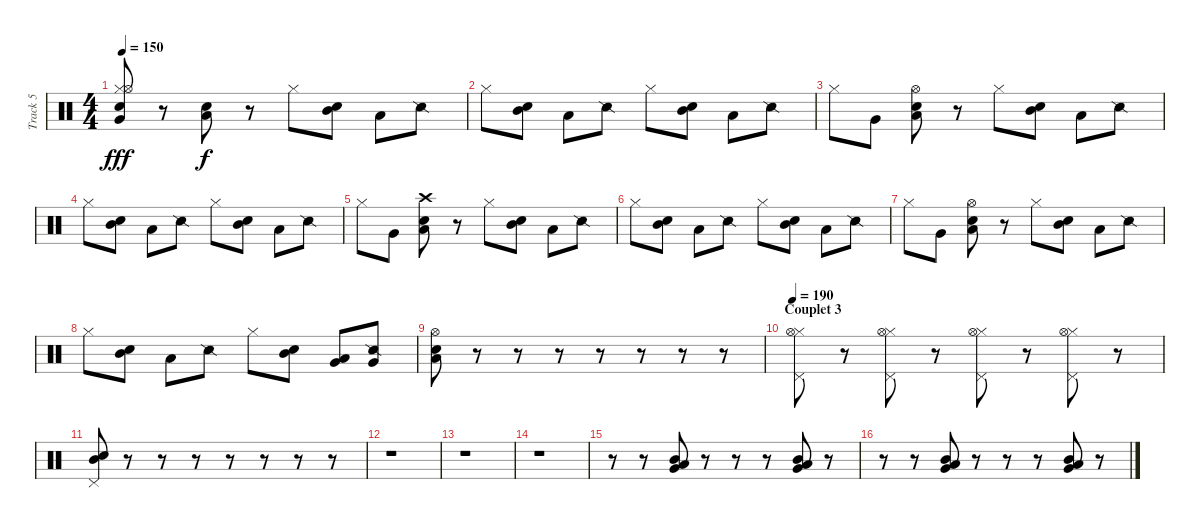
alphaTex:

\track ("Track 5" "Track 5") {instrument percussion}
\staff {score}
\articulation defaults
\ts (4 4)
\tempo 150
\clef neutral
\ks c
("Very Low Tom (hit)" "Hi-Hat (closed)" "Hi-Hat (open)" "Electric Snare (hit)").8{dy fff} r.8 ("Low Tom (hit)" "Snare (hit) 2").8{dy f} r.8 "Hi-Hat (closed)".8 ("Mid Tom (hit)" "Electric Snare (hit)").8 "Low Tom (hit)".8 "Snare (side stick) 2".8 |
"Hi-Hat (closed)".8 ("Mid Tom (hit)" "Electric Snare (hit)").8 "Low Tom (hit)".8 "Snare (side stick) 2".8 "Hi-Hat (closed)".8 ("Mid Tom (hit)" "Electric Snare (hit)").8 "Low Tom (hit)".8 "Snare (side stick) 2".8 |
"Hi-Hat (closed)".8 "Very Low Tom (hit)".8 ("Low Tom (hit)" "Snare (hit) 2" "Hi-Hat (open)").8 r.8 "Hi-Hat (closed)".8 ("Mid Tom (hit)" "Electric Snare (hit)").8 "Low Tom (hit)".8 "Snare (side stick) 2".8 |
"Hi-Hat (closed)".8 ("Mid Tom (hit)" "Electric Snare (hit)").8 "Low Tom (hit)".8 "Snare (side stick) 2".8 "Hi-Hat (closed)".8 ("Mid Tom (hit)" "Electric Snare (hit)").8 "Low Tom (hit)".8 "Snare (side stick) 2".8 |
"Hi-Hat (closed)".8 "Very Low Tom (hit)".8 ("Low Tom (hit)" "Snare (hit) 2" "Crash high (hit)").8 r.8 "Hi-Hat (closed)".8 ("Mid Tom (hit)" "Electric Snare (hit)").8 "Low Tom (hit)".8 "Snare (side stick) 2".8 |
"Hi-Hat (closed)".8 ("Mid Tom (hit)" "Electric Snare (hit)").8 "Low Tom (hit)".8 "Snare (side stick) 2".8 "Hi-Hat (closed)".8 ("Mid Tom (hit)" "Electric Snare (hit)").8 "Low Tom (hit)".8 "Snare (side stick) 2".8 |
"Hi-Hat (closed)".8 "Very Low Tom (hit)".8 ("Low Tom (hit)" "Snare (hit) 2" "Hi-Hat (open)").8 r.8 "Hi-Hat (closed)".8 ("Mid Tom (hit)" "Electric Snare (hit)").8 "Low Tom (hit)".8 "Snare (side stick) 2".8 |
"Hi-Hat (closed)".8 ("Mid Tom (hit)" "Electric Snare (hit)").8 "Low Tom (hit)".8 "Snare (side stick) 2".8 "Hi-Hat (closed)".8 ("Mid Tom (hit)" "Electric Snare (hit)").8 ("Low Tom (hit)" "Very Low Tom (hit)").8 ("Snare (side stick) 2" "Very Low Tom (hit)").8 |
("Low Tom (hit)" "Snare (hit) 2" "Hi-Hat (open)").8 r.8 r.8 r.8 r.8 r.8 r.8 r.8 |
\section ("" "Couplet 3")
\tempo 190
("Hi-Hat (closed)" "Pedal Hi-Hat (hit)" "Hi-Hat (open)").8 r.8 ("Hi-Hat (closed)" "Pedal Hi-Hat (hit)" "Hi-Hat (open)").8 r.8 ("Hi-Hat (closed)" "Pedal Hi-Hat (hit)" "Hi-Hat (open)").8 r.8 ("Hi-Hat (closed)" "Pedal Hi-Hat (hit)" "Hi-Hat (open)").8 r.8 |
("Mid Tom (hit)" "Pedal Hi-Hat (hit)" "Electric Snare (hit)").8 r.8 r.8 r.8 r.8 r.8 r.8 r.8 |
r.1 |
r.1 |
r.1 |
r.8 r.8 ("Low Tom (hit)" "Very Low Tom (hit)" "Mid Tom (hit)").8 r.8 r.8 r.8 ("Mid Tom (hit)" "Low Tom (hit)" "Very Low Tom (hit)").8 r.8 |
r.8 r.8 ("Low Tom (hit)" "Very Low Tom (hit)" "Mid Tom (hit)").8 r.8 r.8 r.8 ("Mid Tom (hit)" "Low Tom (hit)" "Very Low Tom (hit)").8 r.8
